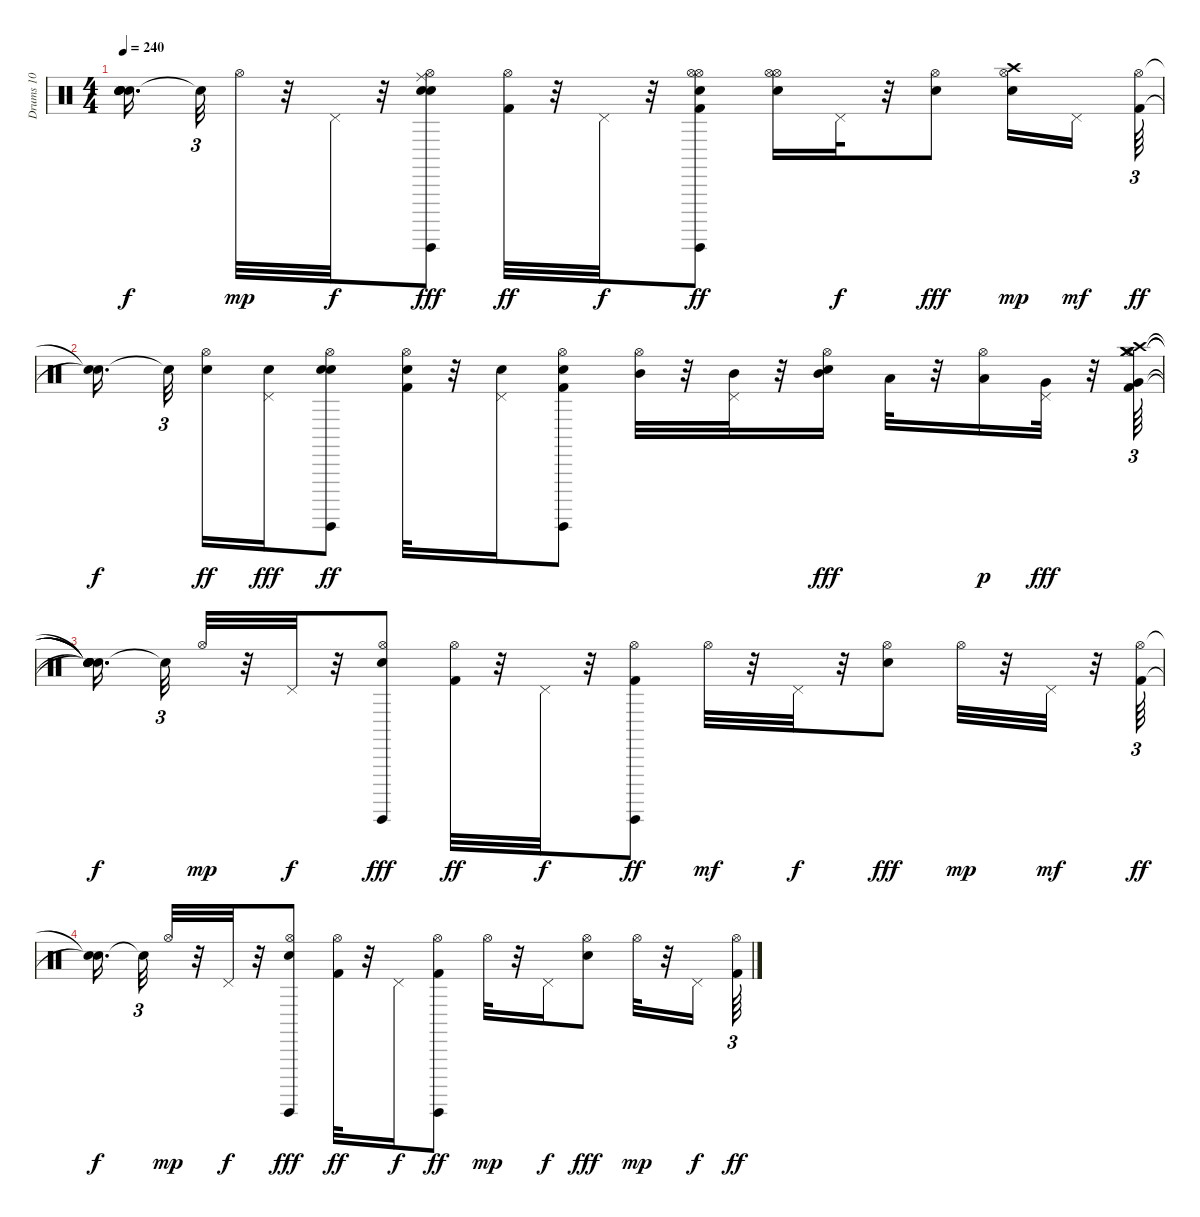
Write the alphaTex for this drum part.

\track ("Drums 10" "Drums 10") {instrument percussion}
\staff {score}
\articulation defaults
\ts (4 4)
\tempo 240
\clef neutral
\ks c
("Snare (hit)"{t} "Snare (hit)"{t} "Snare (hit)"{t} "Snare (hit)"{t} "Snare (hit)"{t}).16{d dy f beam splitsecondary} "Snare (hit)"{t}.32{tu (3 2)} "Hi-Hat (open)".32{dy mp} r.32 "Pedal Hi-Hat (hit)".32{dy f} r.32 ("Hi-Hat (open)" "Guiro (hit)" "Snare (hit) 2" "Electric Snare (hit)" "Ride (middle)").8{dy fff} ("Hi-Hat (open)" "Kick (hit) 2").32{dy ff} r.32 "Pedal Hi-Hat (hit)".32{dy f} r.32 ("Hi-Hat (open)" "Guiro (hit)" "Kick (hit) 2" "Electric Snare (hit)" "Hi-Hat (open)").8{dy ff} ("Hi-Hat (open)" "Electric Snare (hit)" "Hi-Hat (open)").16 "Pedal Hi-Hat (hit)".32{dy f} r.32 ("Hi-Hat (open)" "Snare (hit) 2").8{dy fff} ("Hi-Hat (open)" "Electric Snare (hit)" "Crash high (hit)").16{dy mp} "Pedal Hi-Hat (hit)".16{dy mf beam splitsecondary} ("Hi-Hat (open)" "Kick (hit) 2").64{tu (3 2) dy ff} |
("Snare (hit)"{t} "Snare (hit)"{t}).16{d dy f beam splitsecondary} "Snare (hit)"{t}.32{tu (3 2) beam splitsecondary} ("Hi-Hat (open)" "Electric Snare (hit)").16{dy ff} ("Pedal Hi-Hat (hit)" "Electric Snare (hit)").16{dy fff} ("Hi-Hat (open)" "Guiro (hit)" "Snare (hit) 2" "Electric Snare (hit)").8{dy ff} ("Hi-Hat (open)" "Kick (hit) 2" "Electric Snare (hit)").32 r.32 ("Pedal Hi-Hat (hit)" "Electric Snare (hit)").16 ("Hi-Hat (open)" "Guiro (hit)" "Kick (hit) 2" "Electric Snare (hit)").8 ("Hi-Hat (open)" "Mid Tom (hit)").32 r.32 ("Pedal Hi-Hat (hit)" "Mid Tom (hit)").32 r.32 ("Hi-Hat (open)" "Snare (hit) 2" "Mid Tom (hit)").16{dy fff} "Low Tom (hit)".32 r.32 ("Hi-Hat (open)" "Low Tom (hit)").16{dy p} ("Pedal Hi-Hat (hit)" "Very Low Tom (hit)").32{dy fff} r.32 ("Hi-Hat (open)" "Kick (hit) 2" "Very Low Tom (hit)" "Crash medium (hit)" "Crash high (hit)" "Crash medium (hit)").64{tu (3 2)} |
("Snare (hit)"{t} "Snare (hit)"{t} "Snare (hit)"{t} "Snare (hit)"{t} "Snare (hit)"{t} "Snare (hit)"{t}).16{d dy f beam splitsecondary} "Snare (hit)"{t}.32{tu (3 2)} "Hi-Hat (open)".32{dy mp} r.32 "Pedal Hi-Hat (hit)".32{dy f} r.32 ("Hi-Hat (open)" "Guiro (hit)" "Snare (hit) 2").8{dy fff} ("Hi-Hat (open)" "Kick (hit) 2").32{dy ff} r.32 "Pedal Hi-Hat (hit)".32{dy f} r.32 ("Hi-Hat (open)" "Guiro (hit)" "Kick (hit) 2").8{dy ff} "Hi-Hat (open)".32{dy mf} r.32 "Pedal Hi-Hat (hit)".32{dy f} r.32 ("Hi-Hat (open)" "Snare (hit) 2").8{dy fff} "Hi-Hat (open)".32{dy mp} r.32 "Pedal Hi-Hat (hit)".32{dy mf} r.32 ("Hi-Hat (open)" "Kick (hit) 2").64{tu (3 2) dy ff} |
("Snare (hit)"{t} "Snare (hit)"{t}).16{d dy f beam splitsecondary} "Snare (hit)"{t}.32{tu (3 2)} "Hi-Hat (open)".32{dy mp} r.32 "Pedal Hi-Hat (hit)".32{dy f} r.32 ("Hi-Hat (open)" "Guiro (hit)" "Snare (hit) 2").8{dy fff} ("Hi-Hat (open)" "Kick (hit) 2").32{dy ff} r.32 "Pedal Hi-Hat (hit)".16{dy f} ("Hi-Hat (open)" "Guiro (hit)" "Kick (hit) 2").8{dy ff} "Hi-Hat (open)".32{dy mp} r.32 "Pedal Hi-Hat (hit)".16{dy f} ("Hi-Hat (open)" "Snare (hit) 2").8{dy fff} "Hi-Hat (open)".32{dy mp} r.32 "Pedal Hi-Hat (hit)".16{dy f} ("Hi-Hat (open)" "Kick (hit) 2").64{tu (3 2) dy ff}
